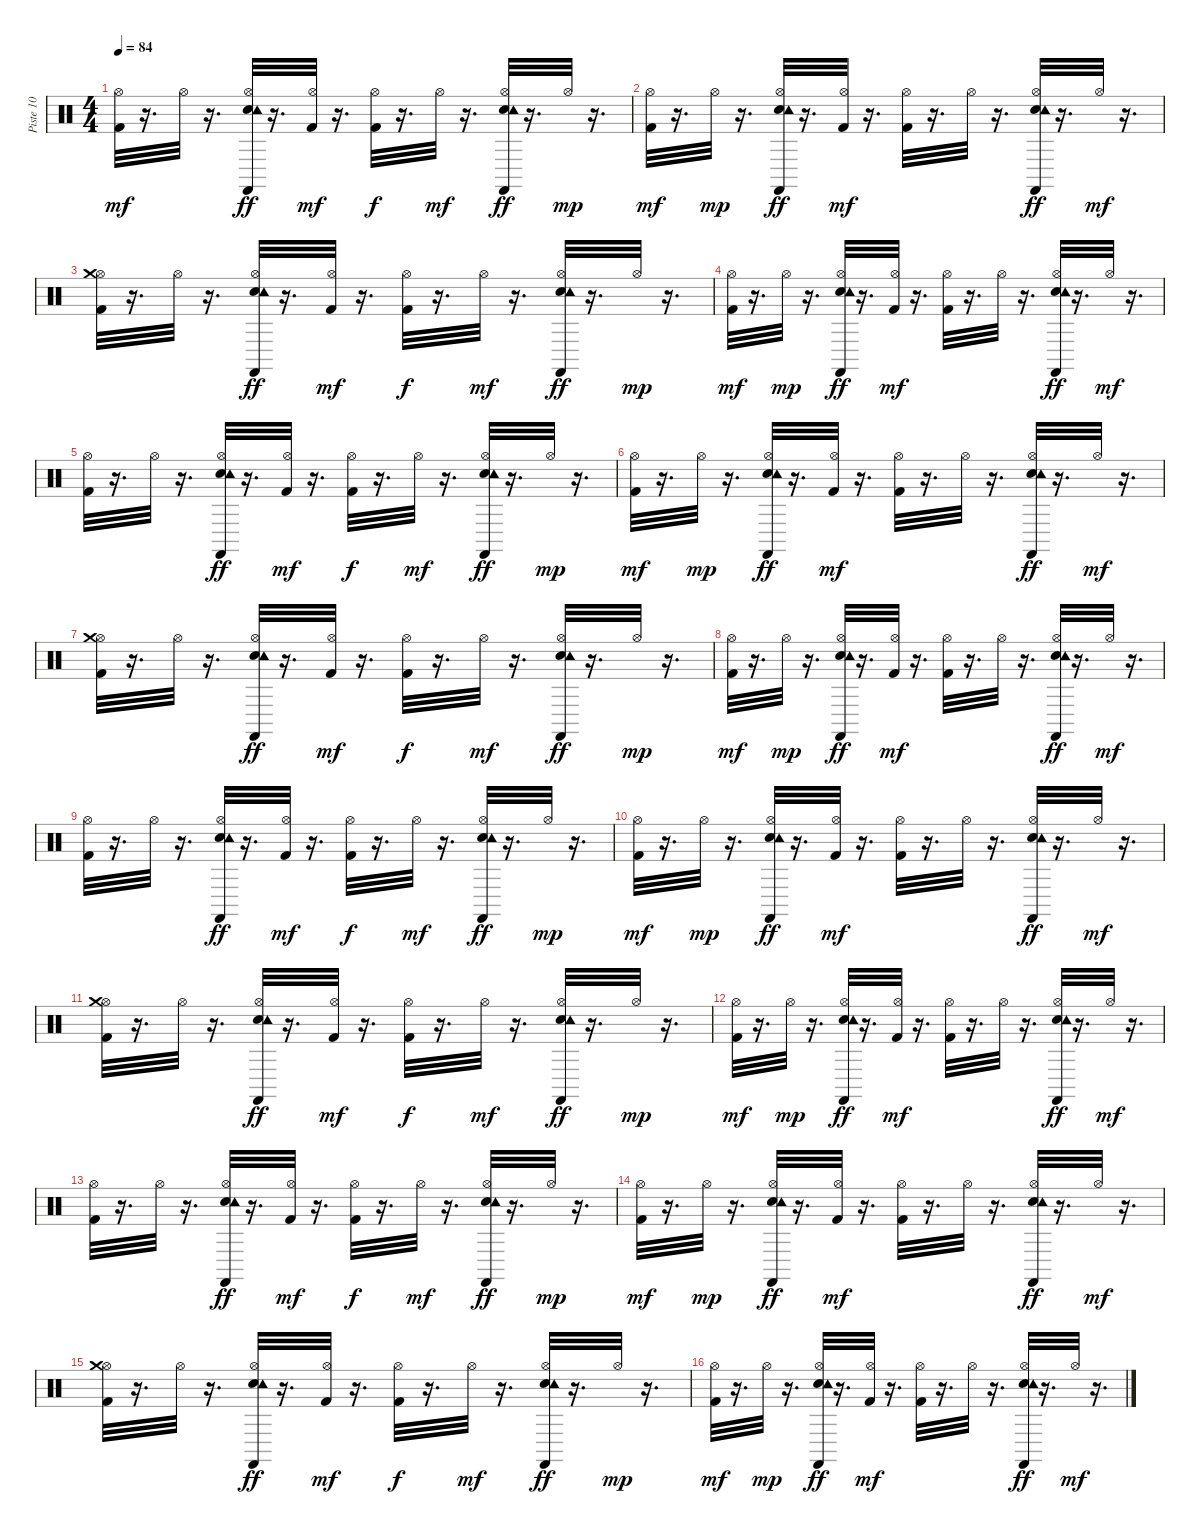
\track ("Piste 10" "Piste 10") {instrument percussion}
\staff {score}
\articulation defaults
\ts (4 4)
\tempo 84
\clef neutral
\ks c
("Kick (hit) 2" "Hi-Hat (open)").32{dy mf} r.16{d} "Hi-Hat (open)".32 r.16{d} ("Hi-Hat (open)" "Hand Clap (hit)" "Tambourine (hit)" "Castanets (hit)").32{dy ff} r.16{d} ("Hi-Hat (open)" "Kick (hit) 2").32{dy mf} r.16{d} ("Hi-Hat (open)" "Kick (hit) 2").32{dy f} r.16{d} "Hi-Hat (open)".32{dy mf} r.16{d} ("Hi-Hat (open)" "Hand Clap (hit)" "Tambourine (hit)" "Castanets (hit)").32{dy ff} r.16{d} "Hi-Hat (open)".32{dy mp} r.16{d} |
("Kick (hit) 2" "Hi-Hat (open)").32{dy mf} r.16{d} "Hi-Hat (open)".32{dy mp} r.16{d} ("Hi-Hat (open)" "Hand Clap (hit)" "Tambourine (hit)" "Castanets (hit)").32{dy ff} r.16{d} ("Hi-Hat (open)" "Kick (hit) 2").32{dy mf} r.16{d} ("Hi-Hat (open)" "Kick (hit) 2").32 r.16{d} "Hi-Hat (open)".32 r.16{d} ("Hand Clap (hit)" "Hi-Hat (open)" "Tambourine (hit)" "Castanets (hit)").32{dy ff} r.16{d} "Hi-Hat (open)".32{dy mf} r.16{d} |
("Kick (hit) 2" "Hi-Hat (open)" "Crash medium (hit)").32 r.16{d} "Hi-Hat (open)".32 r.16{d} ("Hi-Hat (open)" "Hand Clap (hit)" "Tambourine (hit)" "Castanets (hit)").32{dy ff} r.16{d} ("Hi-Hat (open)" "Kick (hit) 2").32{dy mf} r.16{d} ("Hi-Hat (open)" "Kick (hit) 2").32{dy f} r.16{d} "Hi-Hat (open)".32{dy mf} r.16{d} ("Hi-Hat (open)" "Hand Clap (hit)" "Tambourine (hit)" "Castanets (hit)").32{dy ff} r.16{d} "Hi-Hat (open)".32{dy mp} r.16{d} |
("Kick (hit) 2" "Hi-Hat (open)").32{dy mf} r.16{d} "Hi-Hat (open)".32{dy mp} r.16{d} ("Hi-Hat (open)" "Hand Clap (hit)" "Tambourine (hit)" "Castanets (hit)").32{dy ff} r.16{d} ("Hi-Hat (open)" "Kick (hit) 2").32{dy mf} r.16{d} ("Hi-Hat (open)" "Kick (hit) 2").32 r.16{d} "Hi-Hat (open)".32 r.16{d} ("Hand Clap (hit)" "Hi-Hat (open)" "Tambourine (hit)" "Castanets (hit)").32{dy ff} r.16{d} "Hi-Hat (open)".32{dy mf} r.16{d} |
("Kick (hit) 2" "Hi-Hat (open)").32 r.16{d} "Hi-Hat (open)".32 r.16{d} ("Hi-Hat (open)" "Hand Clap (hit)" "Tambourine (hit)" "Castanets (hit)").32{dy ff} r.16{d} ("Hi-Hat (open)" "Kick (hit) 2").32{dy mf} r.16{d} ("Hi-Hat (open)" "Kick (hit) 2").32{dy f} r.16{d} "Hi-Hat (open)".32{dy mf} r.16{d} ("Hi-Hat (open)" "Hand Clap (hit)" "Tambourine (hit)" "Castanets (hit)").32{dy ff} r.16{d} "Hi-Hat (open)".32{dy mp} r.16{d} |
("Kick (hit) 2" "Hi-Hat (open)").32{dy mf} r.16{d} "Hi-Hat (open)".32{dy mp} r.16{d} ("Hi-Hat (open)" "Hand Clap (hit)" "Tambourine (hit)" "Castanets (hit)").32{dy ff} r.16{d} ("Hi-Hat (open)" "Kick (hit) 2").32{dy mf} r.16{d} ("Hi-Hat (open)" "Kick (hit) 2").32 r.16{d} "Hi-Hat (open)".32 r.16{d} ("Hand Clap (hit)" "Hi-Hat (open)" "Tambourine (hit)" "Castanets (hit)").32{dy ff} r.16{d} "Hi-Hat (open)".32{dy mf} r.16{d} |
("Kick (hit) 2" "Hi-Hat (open)" "Crash medium (hit)").32 r.16{d} "Hi-Hat (open)".32 r.16{d} ("Hi-Hat (open)" "Hand Clap (hit)" "Tambourine (hit)" "Castanets (hit)").32{dy ff} r.16{d} ("Hi-Hat (open)" "Kick (hit) 2").32{dy mf} r.16{d} ("Hi-Hat (open)" "Kick (hit) 2").32{dy f} r.16{d} "Hi-Hat (open)".32{dy mf} r.16{d} ("Hi-Hat (open)" "Hand Clap (hit)" "Tambourine (hit)" "Castanets (hit)").32{dy ff} r.16{d} "Hi-Hat (open)".32{dy mp} r.16{d} |
("Kick (hit) 2" "Hi-Hat (open)").32{dy mf} r.16{d} "Hi-Hat (open)".32{dy mp} r.16{d} ("Hi-Hat (open)" "Hand Clap (hit)" "Tambourine (hit)" "Castanets (hit)").32{dy ff} r.16{d} ("Hi-Hat (open)" "Kick (hit) 2").32{dy mf} r.16{d} ("Hi-Hat (open)" "Kick (hit) 2").32 r.16{d} "Hi-Hat (open)".32 r.16{d} ("Hand Clap (hit)" "Hi-Hat (open)" "Tambourine (hit)" "Castanets (hit)").32{dy ff} r.16{d} "Hi-Hat (open)".32{dy mf} r.16{d} |
("Kick (hit) 2" "Hi-Hat (open)").32 r.16{d} "Hi-Hat (open)".32 r.16{d} ("Hi-Hat (open)" "Hand Clap (hit)" "Tambourine (hit)" "Castanets (hit)").32{dy ff} r.16{d} ("Hi-Hat (open)" "Kick (hit) 2").32{dy mf} r.16{d} ("Hi-Hat (open)" "Kick (hit) 2").32{dy f} r.16{d} "Hi-Hat (open)".32{dy mf} r.16{d} ("Hi-Hat (open)" "Hand Clap (hit)" "Tambourine (hit)" "Castanets (hit)").32{dy ff} r.16{d} "Hi-Hat (open)".32{dy mp} r.16{d} |
("Kick (hit) 2" "Hi-Hat (open)").32{dy mf} r.16{d} "Hi-Hat (open)".32{dy mp} r.16{d} ("Hi-Hat (open)" "Hand Clap (hit)" "Tambourine (hit)" "Castanets (hit)").32{dy ff} r.16{d} ("Hi-Hat (open)" "Kick (hit) 2").32{dy mf} r.16{d} ("Hi-Hat (open)" "Kick (hit) 2").32 r.16{d} "Hi-Hat (open)".32 r.16{d} ("Hand Clap (hit)" "Hi-Hat (open)" "Tambourine (hit)" "Castanets (hit)").32{dy ff} r.16{d} "Hi-Hat (open)".32{dy mf} r.16{d} |
("Kick (hit) 2" "Hi-Hat (open)" "Crash medium (hit)").32 r.16{d} "Hi-Hat (open)".32 r.16{d} ("Hi-Hat (open)" "Hand Clap (hit)" "Tambourine (hit)" "Castanets (hit)").32{dy ff} r.16{d} ("Hi-Hat (open)" "Kick (hit) 2").32{dy mf} r.16{d} ("Hi-Hat (open)" "Kick (hit) 2").32{dy f} r.16{d} "Hi-Hat (open)".32{dy mf} r.16{d} ("Hi-Hat (open)" "Hand Clap (hit)" "Tambourine (hit)" "Castanets (hit)").32{dy ff} r.16{d} "Hi-Hat (open)".32{dy mp} r.16{d} |
("Kick (hit) 2" "Hi-Hat (open)").32{dy mf} r.16{d} "Hi-Hat (open)".32{dy mp} r.16{d} ("Hi-Hat (open)" "Hand Clap (hit)" "Tambourine (hit)" "Castanets (hit)").32{dy ff} r.16{d} ("Hi-Hat (open)" "Kick (hit) 2").32{dy mf} r.16{d} ("Hi-Hat (open)" "Kick (hit) 2").32 r.16{d} "Hi-Hat (open)".32 r.16{d} ("Hand Clap (hit)" "Hi-Hat (open)" "Tambourine (hit)" "Castanets (hit)").32{dy ff} r.16{d} "Hi-Hat (open)".32{dy mf} r.16{d} |
("Kick (hit) 2" "Hi-Hat (open)").32 r.16{d} "Hi-Hat (open)".32 r.16{d} ("Hi-Hat (open)" "Hand Clap (hit)" "Tambourine (hit)" "Castanets (hit)").32{dy ff} r.16{d} ("Hi-Hat (open)" "Kick (hit) 2").32{dy mf} r.16{d} ("Hi-Hat (open)" "Kick (hit) 2").32{dy f} r.16{d} "Hi-Hat (open)".32{dy mf} r.16{d} ("Hi-Hat (open)" "Hand Clap (hit)" "Tambourine (hit)" "Castanets (hit)").32{dy ff} r.16{d} "Hi-Hat (open)".32{dy mp} r.16{d} |
("Kick (hit) 2" "Hi-Hat (open)").32{dy mf} r.16{d} "Hi-Hat (open)".32{dy mp} r.16{d} ("Hi-Hat (open)" "Hand Clap (hit)" "Tambourine (hit)" "Castanets (hit)").32{dy ff} r.16{d} ("Hi-Hat (open)" "Kick (hit) 2").32{dy mf} r.16{d} ("Hi-Hat (open)" "Kick (hit) 2").32 r.16{d} "Hi-Hat (open)".32 r.16{d} ("Hand Clap (hit)" "Hi-Hat (open)" "Tambourine (hit)" "Castanets (hit)").32{dy ff} r.16{d} "Hi-Hat (open)".32{dy mf} r.16{d} |
("Kick (hit) 2" "Hi-Hat (open)" "Crash medium (hit)").32 r.16{d} "Hi-Hat (open)".32 r.16{d} ("Hi-Hat (open)" "Hand Clap (hit)" "Tambourine (hit)" "Castanets (hit)").32{dy ff} r.16{d} ("Hi-Hat (open)" "Kick (hit) 2").32{dy mf} r.16{d} ("Hi-Hat (open)" "Kick (hit) 2").32{dy f} r.16{d} "Hi-Hat (open)".32{dy mf} r.16{d} ("Hi-Hat (open)" "Hand Clap (hit)" "Tambourine (hit)" "Castanets (hit)").32{dy ff} r.16{d} "Hi-Hat (open)".32{dy mp} r.16{d} |
("Kick (hit) 2" "Hi-Hat (open)").32{dy mf} r.16{d} "Hi-Hat (open)".32{dy mp} r.16{d} ("Hi-Hat (open)" "Hand Clap (hit)" "Tambourine (hit)" "Castanets (hit)").32{dy ff} r.16{d} ("Hi-Hat (open)" "Kick (hit) 2").32{dy mf} r.16{d} ("Hi-Hat (open)" "Kick (hit) 2").32 r.16{d} "Hi-Hat (open)".32 r.16{d} ("Hand Clap (hit)" "Hi-Hat (open)" "Tambourine (hit)" "Castanets (hit)").32{dy ff} r.16{d} "Hi-Hat (open)".32{dy mf} r.16{d}
